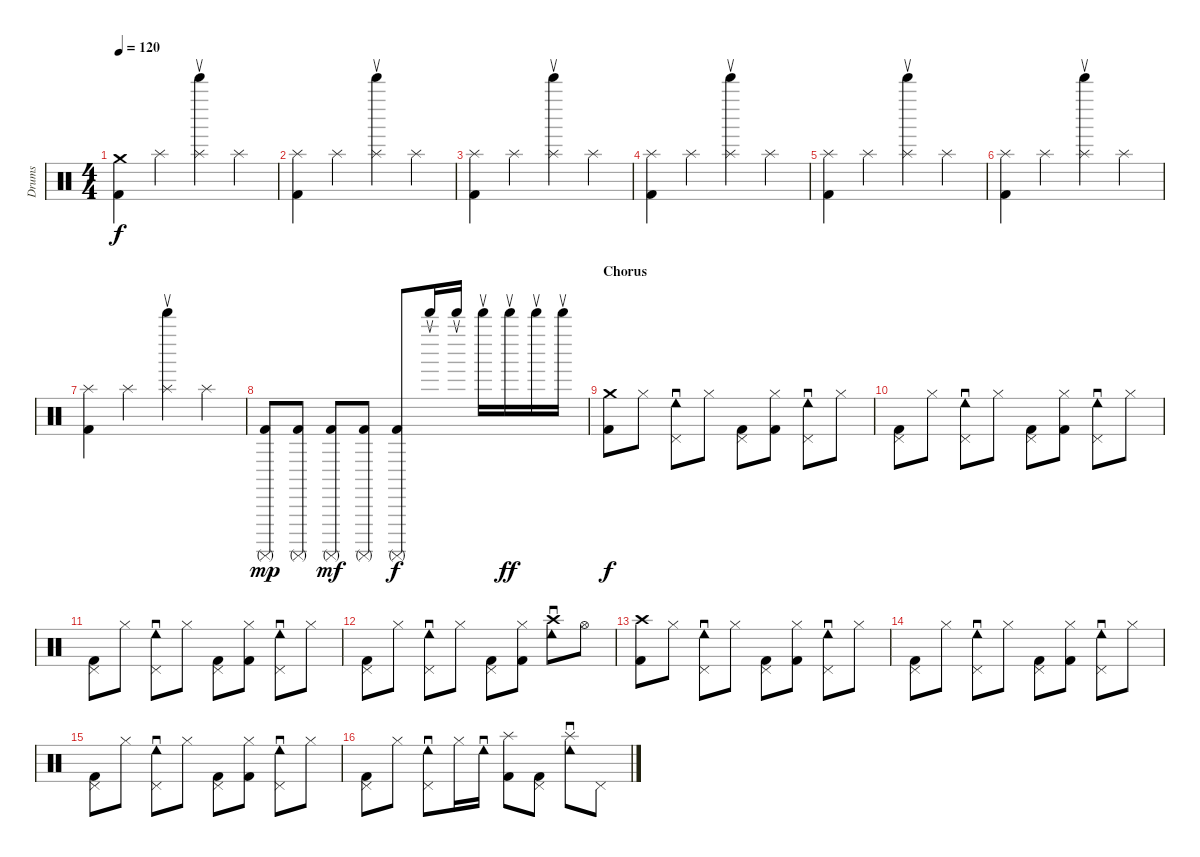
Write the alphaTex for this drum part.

\track ("Drums" "Drums") {instrument percussion}
\staff {score}
\articulation defaults
\ts (4 4)
\tempo 120
\clef neutral
\ks c
("Crash medium (hit)" "Kick (hit) 2").4{dy f} "Splash (hit)".4 ("Bell Tee (return)" "Splash (hit)").4 "Splash (hit)".4 |
("Splash (hit)" "Kick (hit) 2").4 "Splash (hit)".4 ("Bell Tee (return)" "Splash (hit)").4 "Splash (hit)".4 |
("Splash (hit)" "Kick (hit) 2").4 "Splash (hit)".4 ("Bell Tee (return)" "Splash (hit)").4 "Splash (hit)".4 |
("Splash (hit)" "Kick (hit) 2").4 "Splash (hit)".4 ("Bell Tee (return)" "Splash (hit)").4 "Splash (hit)".4 |
("Splash (hit)" "Kick (hit) 2").4 "Splash (hit)".4 ("Bell Tee (return)" "Splash (hit)").4 "Splash (hit)".4 |
("Splash (hit)" "Kick (hit) 2").4 "Splash (hit)".4 ("Bell Tee (return)" "Splash (hit)").4 "Splash (hit)".4 |
("Splash (hit)" "Kick (hit) 2").4 "Splash (hit)".4 ("Bell Tee (return)" "Splash (hit)").4 "Splash (hit)".4 |
("Surdo (mute)" "Kick (hit) 2").8{dy mp} ("Surdo (mute)" "Kick (hit) 2").8 ("Surdo (mute)" "Kick (hit) 2").8{dy mf} ("Surdo (mute)" "Kick (hit) 2").8 ("Surdo (mute)" "Kick (hit) 2").8{dy f} "Bell Tee (return)".16 "Bell Tee (return)".16 "Bell Tee (return)".16 "Bell Tee (return)".16{dy ff} "Bell Tee (return)".16 "Bell Tee (return)".16 |
\section ("" "Chorus")
("Crash medium (hit)" "Kick (hit) 2").8{dy f} "Hi-Hat (closed)".8 ("Tambourine (roll)" "Pedal Hi-Hat (hit)").8 "Hi-Hat (closed)".8 ("Pedal Hi-Hat (hit)" "Kick (hit) 2").8 ("Hi-Hat (closed)" "Kick (hit) 2").8 ("Tambourine (roll)" "Pedal Hi-Hat (hit)").8 "Hi-Hat (closed)".8 |
("Pedal Hi-Hat (hit)" "Kick (hit) 2").8 "Hi-Hat (closed)".8 ("Tambourine (roll)" "Pedal Hi-Hat (hit)").8 "Hi-Hat (closed)".8 ("Pedal Hi-Hat (hit)" "Kick (hit) 2").8 ("Hi-Hat (closed)" "Kick (hit) 2").8 ("Tambourine (roll)" "Pedal Hi-Hat (hit)").8 "Hi-Hat (closed)".8 |
("Pedal Hi-Hat (hit)" "Kick (hit) 2").8 "Hi-Hat (closed)".8 ("Tambourine (roll)" "Pedal Hi-Hat (hit)").8 "Hi-Hat (closed)".8 ("Pedal Hi-Hat (hit)" "Kick (hit) 2").8 ("Hi-Hat (closed)" "Kick (hit) 2").8 ("Tambourine (roll)" "Pedal Hi-Hat (hit)").8 "Hi-Hat (closed)".8 |
("Pedal Hi-Hat (hit)" "Kick (hit) 2").8 "Hi-Hat (closed)".8 ("Tambourine (roll)" "Pedal Hi-Hat (hit)").8 "Hi-Hat (closed)".8 ("Pedal Hi-Hat (hit)" "Kick (hit) 2").8 ("Hi-Hat (closed)" "Kick (hit) 2").8 ("Crash high (hit)" "Tambourine (roll)").8 "Hi-Hat (open)".8 |
("Crash high (hit)" "Kick (hit) 2").8 "Hi-Hat (closed)".8 ("Tambourine (roll)" "Pedal Hi-Hat (hit)").8 "Hi-Hat (closed)".8 ("Pedal Hi-Hat (hit)" "Kick (hit) 2").8 ("Hi-Hat (closed)" "Kick (hit) 2").8 ("Tambourine (roll)" "Pedal Hi-Hat (hit)").8 "Hi-Hat (closed)".8 |
("Pedal Hi-Hat (hit)" "Kick (hit) 2").8 "Hi-Hat (closed)".8 ("Tambourine (roll)" "Pedal Hi-Hat (hit)").8 "Hi-Hat (closed)".8 ("Pedal Hi-Hat (hit)" "Kick (hit) 2").8 ("Hi-Hat (closed)" "Kick (hit) 2").8 ("Tambourine (roll)" "Pedal Hi-Hat (hit)").8 "Hi-Hat (closed)".8 |
("Pedal Hi-Hat (hit)" "Kick (hit) 2").8 "Hi-Hat (closed)".8 ("Tambourine (roll)" "Pedal Hi-Hat (hit)").8 "Hi-Hat (closed)".8 ("Pedal Hi-Hat (hit)" "Kick (hit) 2").8 ("Hi-Hat (closed)" "Kick (hit) 2").8 ("Tambourine (roll)" "Pedal Hi-Hat (hit)").8 "Hi-Hat (closed)".8 |
("Pedal Hi-Hat (hit)" "Kick (hit) 2").8 "Hi-Hat (closed)".8 ("Tambourine (roll)" "Pedal Hi-Hat (hit)").8 "Hi-Hat (closed)".16 "Tambourine (roll)".16 ("Splash (hit)" "Kick (hit) 2").8 ("Pedal Hi-Hat (hit)" "Kick (hit) 2").8 ("Tambourine (roll)" "Splash (hit)").8 "Pedal Hi-Hat (hit)".8
